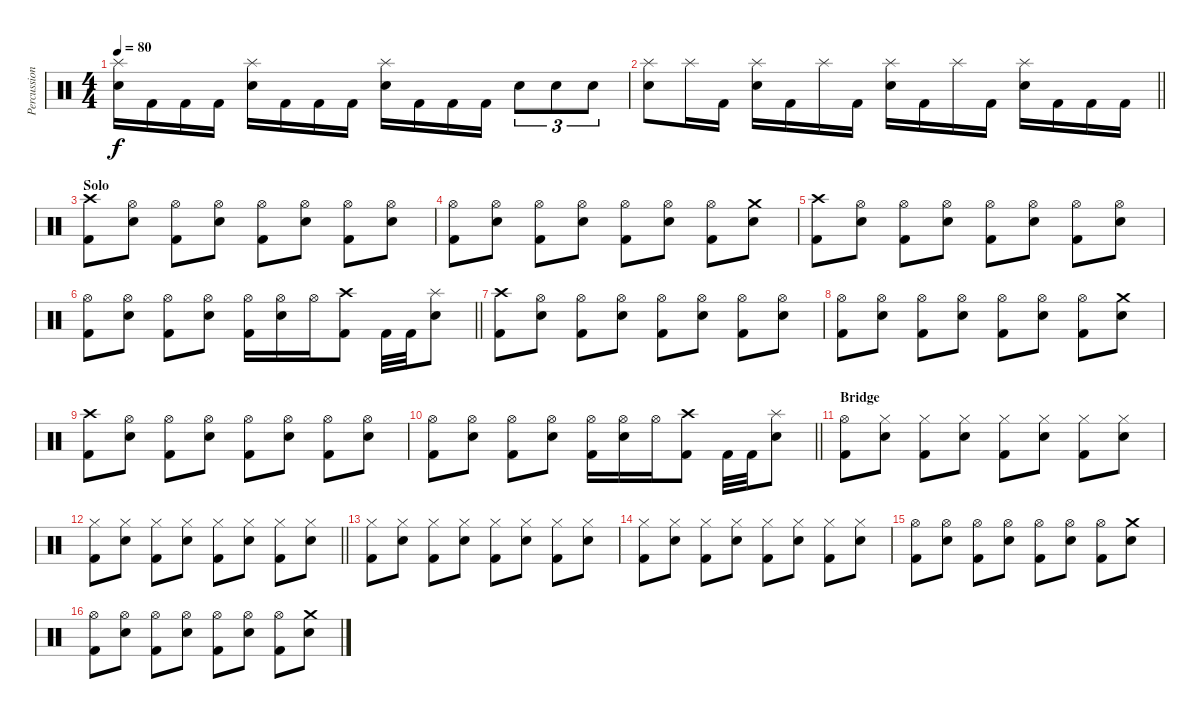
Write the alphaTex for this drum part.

\track ("Percussion" "Percussion") {instrument percussion}
\staff {score}
\articulation defaults
\ts (4 4)
\tempo 80
\clef neutral
\ks c
("Splash (hit)" "Snare (hit) 2").16{dy f} "Kick (hit) 2".16 "Kick (hit) 2".16 "Kick (hit) 2".16 ("Splash (hit)" "Snare (hit) 2").16 "Kick (hit) 2".16 "Kick (hit) 2".16 "Kick (hit) 2".16 ("Splash (hit)" "Snare (hit) 2").16 "Kick (hit) 2".16 "Kick (hit) 2".16 "Kick (hit) 2".16 "Snare (hit) 2".8{tu (3 2)} "Snare (hit) 2".8{tu (3 2)} "Snare (hit) 2".8{tu (3 2)} |
\barLineRight lightlight
("Splash (hit)" "Snare (hit) 2").8 "Splash (hit)".16 "Kick (hit) 2".16 ("Splash (hit)" "Snare (hit) 2").16 "Kick (hit) 2".16 "Splash (hit)".16 "Kick (hit) 2".16 ("Splash (hit)" "Snare (hit) 2").16 "Kick (hit) 2".16 "Splash (hit)".16 "Kick (hit) 2".16 ("Splash (hit)" "Snare (hit) 2").16 "Kick (hit) 2".16 "Kick (hit) 2".16 "Kick (hit) 2".16 |
\section ("" "Solo")
("Crash high (hit)" "Kick (hit) 2").8 ("Hi-Hat (open)" "Snare (hit) 2").8 ("Hi-Hat (open)" "Kick (hit) 2").8 ("Hi-Hat (open)" "Snare (hit) 2").8 ("Hi-Hat (open)" "Kick (hit) 2").8 ("Hi-Hat (open)" "Snare (hit) 2").8 ("Hi-Hat (open)" "Kick (hit) 2").8 ("Hi-Hat (open)" "Snare (hit) 2").8 |
("Hi-Hat (open)" "Kick (hit) 2").8 ("Hi-Hat (open)" "Snare (hit) 2").8 ("Hi-Hat (open)" "Kick (hit) 2").8 ("Hi-Hat (open)" "Snare (hit) 2").8 ("Hi-Hat (open)" "Kick (hit) 2").8 ("Hi-Hat (open)" "Snare (hit) 2").8 ("Hi-Hat (open)" "Kick (hit) 2").8 ("Crash medium (hit)" "Snare (hit) 2").8 |
("Crash high (hit)" "Kick (hit) 2").8 ("Hi-Hat (open)" "Snare (hit) 2").8 ("Hi-Hat (open)" "Kick (hit) 2").8 ("Hi-Hat (open)" "Snare (hit) 2").8 ("Hi-Hat (open)" "Kick (hit) 2").8 ("Hi-Hat (open)" "Snare (hit) 2").8 ("Hi-Hat (open)" "Kick (hit) 2").8 ("Hi-Hat (open)" "Snare (hit) 2").8 |
\barLineRight lightlight
("Hi-Hat (open)" "Kick (hit) 2").8 ("Hi-Hat (open)" "Snare (hit) 2").8 ("Hi-Hat (open)" "Kick (hit) 2").8 ("Hi-Hat (open)" "Snare (hit) 2").8 ("Hi-Hat (open)" "Kick (hit) 2").16 ("Hi-Hat (open)" "Snare (hit) 2").16 "Hi-Hat (open)".16 ("Crash high (hit)" "Kick (hit) 2").8 "Kick (hit) 2".32 "Kick (hit) 2".32 ("Splash (hit)" "Snare (hit) 2").8 |
("Crash high (hit)" "Kick (hit) 2").8 ("Hi-Hat (open)" "Snare (hit) 2").8 ("Hi-Hat (open)" "Kick (hit) 2").8 ("Hi-Hat (open)" "Snare (hit) 2").8 ("Hi-Hat (open)" "Kick (hit) 2").8 ("Hi-Hat (open)" "Snare (hit) 2").8 ("Hi-Hat (open)" "Kick (hit) 2").8 ("Hi-Hat (open)" "Snare (hit) 2").8 |
("Hi-Hat (open)" "Kick (hit) 2").8 ("Hi-Hat (open)" "Snare (hit) 2").8 ("Hi-Hat (open)" "Kick (hit) 2").8 ("Hi-Hat (open)" "Snare (hit) 2").8 ("Hi-Hat (open)" "Kick (hit) 2").8 ("Hi-Hat (open)" "Snare (hit) 2").8 ("Hi-Hat (open)" "Kick (hit) 2").8 ("Crash medium (hit)" "Snare (hit) 2").8 |
("Crash high (hit)" "Kick (hit) 2").8 ("Hi-Hat (open)" "Snare (hit) 2").8 ("Hi-Hat (open)" "Kick (hit) 2").8 ("Hi-Hat (open)" "Snare (hit) 2").8 ("Hi-Hat (open)" "Kick (hit) 2").8 ("Hi-Hat (open)" "Snare (hit) 2").8 ("Hi-Hat (open)" "Kick (hit) 2").8 ("Hi-Hat (open)" "Snare (hit) 2").8 |
\barLineRight lightlight
("Hi-Hat (open)" "Kick (hit) 2").8 ("Hi-Hat (open)" "Snare (hit) 2").8 ("Hi-Hat (open)" "Kick (hit) 2").8 ("Hi-Hat (open)" "Snare (hit) 2").8 ("Hi-Hat (open)" "Kick (hit) 2").16 ("Hi-Hat (open)" "Snare (hit) 2").16 "Hi-Hat (open)".16 ("Crash high (hit)" "Kick (hit) 2").8 "Kick (hit) 2".32 "Kick (hit) 2".32 ("Splash (hit)" "Snare (hit) 2").8 |
\section ("" "Bridge")
("Hi-Hat (open)" "Kick (hit) 2").8 ("Hi-Hat (closed)" "Snare (hit) 2").8 ("Hi-Hat (closed)" "Kick (hit) 2").8 ("Hi-Hat (closed)" "Snare (hit) 2").8 ("Hi-Hat (closed)" "Kick (hit) 2").8 ("Hi-Hat (closed)" "Snare (hit) 2").8 ("Hi-Hat (closed)" "Kick (hit) 2").8 ("Hi-Hat (closed)" "Snare (hit) 2").8 |
\barLineRight lightlight
("Hi-Hat (closed)" "Kick (hit) 2").8 ("Hi-Hat (closed)" "Snare (hit) 2").8 ("Hi-Hat (closed)" "Kick (hit) 2").8 ("Hi-Hat (closed)" "Snare (hit) 2").8 ("Hi-Hat (closed)" "Kick (hit) 2").8 ("Hi-Hat (closed)" "Snare (hit) 2").8 ("Hi-Hat (closed)" "Kick (hit) 2").8 ("Hi-Hat (closed)" "Snare (hit) 2").8 |
("Hi-Hat (closed)" "Kick (hit) 2").8 ("Hi-Hat (closed)" "Snare (hit) 2").8 ("Hi-Hat (closed)" "Kick (hit) 2").8 ("Hi-Hat (closed)" "Snare (hit) 2").8 ("Hi-Hat (closed)" "Kick (hit) 2").8 ("Hi-Hat (closed)" "Snare (hit) 2").8 ("Hi-Hat (closed)" "Kick (hit) 2").8 ("Hi-Hat (closed)" "Snare (hit) 2").8 |
("Hi-Hat (closed)" "Kick (hit) 2").8 ("Hi-Hat (closed)" "Snare (hit) 2").8 ("Hi-Hat (closed)" "Kick (hit) 2").8 ("Hi-Hat (closed)" "Snare (hit) 2").8 ("Hi-Hat (closed)" "Kick (hit) 2").8 ("Hi-Hat (closed)" "Snare (hit) 2").8 ("Hi-Hat (closed)" "Kick (hit) 2").8 ("Hi-Hat (closed)" "Snare (hit) 2").8 |
("Hi-Hat (open)" "Kick (hit) 2").8 ("Hi-Hat (open)" "Snare (hit) 2").8 ("Hi-Hat (open)" "Kick (hit) 2").8 ("Hi-Hat (open)" "Snare (hit) 2").8 ("Hi-Hat (open)" "Kick (hit) 2").8 ("Hi-Hat (open)" "Snare (hit) 2").8 ("Hi-Hat (open)" "Kick (hit) 2").8 ("Crash medium (hit)" "Snare (hit) 2").8 |
("Hi-Hat (open)" "Kick (hit) 2").8 ("Hi-Hat (open)" "Snare (hit) 2").8 ("Hi-Hat (open)" "Kick (hit) 2").8 ("Hi-Hat (open)" "Snare (hit) 2").8 ("Hi-Hat (open)" "Kick (hit) 2").8 ("Hi-Hat (open)" "Snare (hit) 2").8 ("Hi-Hat (open)" "Kick (hit) 2").8 ("Crash medium (hit)" "Snare (hit) 2").8
